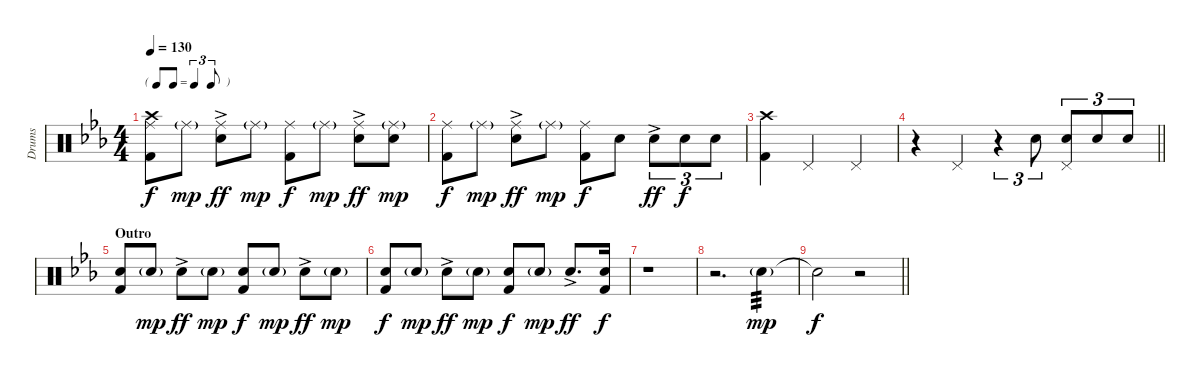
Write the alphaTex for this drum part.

\track ("Drums" "Drums") {instrument percussion}
\staff {score}
\articulation defaults
\ts (4 4)
\tf triplet8th
\tempo 130
\clef neutral
\ks eb
("Ride (middle)" "Kick (hit) 2" "Crash high (hit)").8{dy f} "Ride (middle)"{g}.8{dy mp} ("Ride (middle)" "Electric Snare (hit)"{ac}).8{dy ff} "Ride (middle)"{g}.8{dy mp} ("Ride (middle)" "Kick (hit) 2").8{dy f} "Ride (middle)"{g}.8{dy mp} ("Ride (middle)" "Electric Snare (hit)"{ac}).8{dy ff} ("Ride (middle)"{g} "Electric Snare (hit)").8{dy mp} |
("Ride (middle)" "Kick (hit) 2").8{dy f} "Ride (middle)"{g}.8{dy mp} ("Ride (middle)" "Electric Snare (hit)"{ac}).8{dy ff} "Ride (middle)"{g}.8{dy mp} ("Ride (middle)" "Kick (hit) 2").8{dy f} "Electric Snare (hit)".8 "Electric Snare (hit)"{ac}.8{tu (3 2) dy ff} "Electric Snare (hit)".8{tu (3 2) dy f} "Electric Snare (hit)".8{tu (3 2)} |
("Kick (hit) 2" "Crash high (hit)").4 "Pedal Hi-Hat (hit)".2 "Pedal Hi-Hat (hit)".4 |
\barLineRight lightlight
r.4 "Pedal Hi-Hat (hit)".4 r.4{tu (3 2)} "Electric Snare (hit)".8{tu (3 2)} ("Pedal Hi-Hat (hit)" "Electric Snare (hit)").8{tu (3 2)} "Electric Snare (hit)".8{tu (3 2)} "Electric Snare (hit)".8{tu (3 2)} |
\section ("" "Outro")
("Electric Snare (hit)" "Kick (hit) 2").8 "Electric Snare (hit)"{g}.8{dy mp} "Electric Snare (hit)"{ac}.8{dy ff} "Electric Snare (hit)"{g}.8{dy mp} ("Electric Snare (hit)" "Kick (hit) 2").8{dy f} "Electric Snare (hit)"{g}.8{dy mp} "Electric Snare (hit)"{ac}.8{dy ff} "Electric Snare (hit)"{g}.8{dy mp} |
("Electric Snare (hit)" "Kick (hit) 2").8{dy f} "Electric Snare (hit)"{g}.8{dy mp} "Electric Snare (hit)"{ac}.8{dy ff} "Electric Snare (hit)"{g}.8{dy mp} ("Electric Snare (hit)" "Kick (hit) 2").8{dy f} "Electric Snare (hit)"{g}.8{dy mp} "Electric Snare (hit)"{ac}.8{d dy ff} ("Electric Snare (hit)" "Kick (hit) 2").16{dy f} |
r.1 |
r.2{d} "Electric Snare (hit)"{g}.4{tp 3 dy mp} |
\barLineRight lightlight "Electric Snare (hit)"{t}.2{dy f}
r.2
